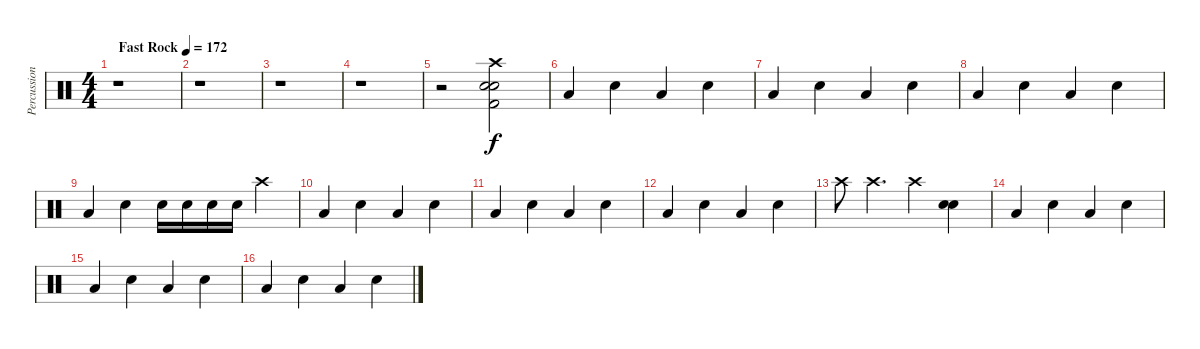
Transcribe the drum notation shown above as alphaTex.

\track ("Percussion" "Percussion") {instrument percussion}
\staff {score}
\articulation defaults
\ts (4 4)
\tempo (172 "Fast Rock")
\clef neutral
\ks c
r.1{dy f} |
r.1 |
r.1 |
r.1 |
r.2 ("Crash high (hit)" "Kick (hit) 2" "Snare (hit) 2" "Snare (hit) 2").2 |
"Low Tom (hit)".4 "Snare (hit) 2".4 "Low Tom (hit)".4 "Snare (hit) 2".4 |
"Low Tom (hit)".4 "Snare (hit) 2".4 "Low Tom (hit)".4 "Snare (hit) 2".4 |
"Low Tom (hit)".4 "Snare (hit) 2".4 "Low Tom (hit)".4 "Snare (hit) 2".4 |
"Low Tom (hit)".4 "Snare (hit) 2".4 "Snare (hit) 2".16 "Snare (hit) 2".16 "Snare (hit) 2".16 "Snare (hit) 2".16 "Crash high (hit)".4 |
"Low Tom (hit)".4 "Snare (hit) 2".4 "Low Tom (hit)".4 "Snare (hit) 2".4 |
"Low Tom (hit)".4 "Snare (hit) 2".4 "Low Tom (hit)".4 "Snare (hit) 2".4 |
"Low Tom (hit)".4 "Snare (hit) 2".4 "Low Tom (hit)".4 "Snare (hit) 2".4 |
"Crash high (hit)".8 "Crash high (hit)".4{d} "Crash high (hit)".4 ("Snare (hit) 2" "Snare (hit) 2").4 |
"Low Tom (hit)".4 "Snare (hit) 2".4 "Low Tom (hit)".4 "Snare (hit) 2".4 |
"Low Tom (hit)".4 "Snare (hit) 2".4 "Low Tom (hit)".4 "Snare (hit) 2".4 |
"Low Tom (hit)".4 "Snare (hit) 2".4 "Low Tom (hit)".4 "Snare (hit) 2".4
